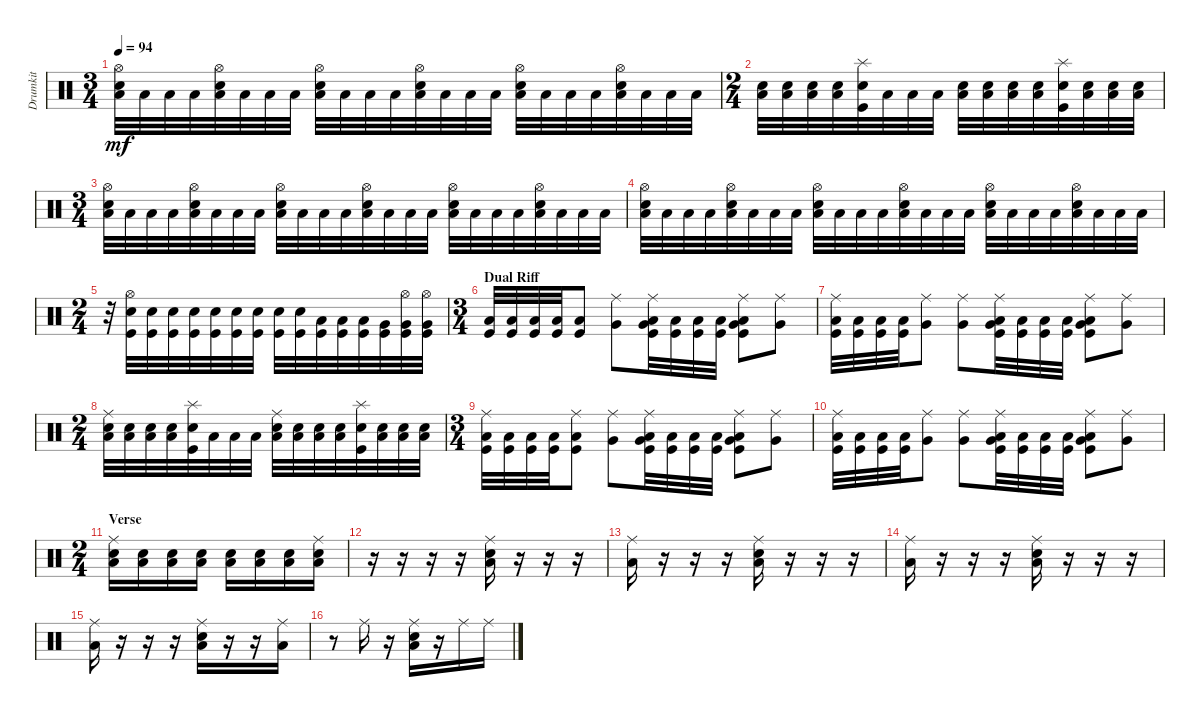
\track ("Drumkit" "Drumkit") {instrument percussion}
\staff {score}
\articulation defaults
\ts (3 4)
\tempo 94
\clef neutral
\ks c
("Low Tom (hit)" "Hi-Hat (open)" "Snare (hit) 2").32{dy mf} "Low Tom (hit)".32 "Low Tom (hit)".32 "Low Tom (hit)".32 ("Low Tom (hit)" "Hi-Hat (open)" "Snare (hit) 2").32 "Low Tom (hit)".32 "Low Tom (hit)".32 "Low Tom (hit)".32 ("Low Tom (hit)" "Hi-Hat (open)" "Snare (hit) 2").32 "Low Tom (hit)".32 "Low Tom (hit)".32 "Low Tom (hit)".32 ("Low Tom (hit)" "Hi-Hat (open)" "Snare (hit) 2").32 "Low Tom (hit)".32 "Low Tom (hit)".32 "Low Tom (hit)".32 ("Low Tom (hit)" "Hi-Hat (open)" "Snare (hit) 2").32 "Low Tom (hit)".32 "Low Tom (hit)".32 "Low Tom (hit)".32 ("Low Tom (hit)" "Hi-Hat (open)" "Snare (hit) 2").32 "Low Tom (hit)".32 "Low Tom (hit)".32 "Low Tom (hit)".32 |
\ts (2 4)
("Snare (hit) 2" "Low Tom (hit)").32 ("Snare (hit) 2" "Low Tom (hit)").32 ("Snare (hit) 2" "Low Tom (hit)").32 ("Snare (hit) 2" "Low Tom (hit)").32 ("Snare (hit) 2" "Kick (hit)" "Splash (hit)").32 "Low Tom (hit)".32 "Low Tom (hit)".32 "Low Tom (hit)".32 ("Snare (hit) 2" "Low Tom (hit)").32 ("Snare (hit) 2" "Low Tom (hit)").32 ("Snare (hit) 2" "Low Tom (hit)").32 ("Snare (hit) 2" "Low Tom (hit)").32 ("Snare (hit) 2" "Kick (hit)" "Splash (hit)").32 ("Snare (hit) 2" "Low Tom (hit)").32 ("Snare (hit) 2" "Low Tom (hit)").32 ("Snare (hit) 2" "Low Tom (hit)").32 |
\ts (3 4)
("Low Tom (hit)" "Hi-Hat (open)" "Snare (hit) 2").32 "Low Tom (hit)".32 "Low Tom (hit)".32 "Low Tom (hit)".32 ("Low Tom (hit)" "Hi-Hat (open)" "Snare (hit) 2").32 "Low Tom (hit)".32 "Low Tom (hit)".32 "Low Tom (hit)".32 ("Low Tom (hit)" "Hi-Hat (open)" "Snare (hit) 2").32 "Low Tom (hit)".32 "Low Tom (hit)".32 "Low Tom (hit)".32 ("Low Tom (hit)" "Hi-Hat (open)" "Snare (hit) 2").32 "Low Tom (hit)".32 "Low Tom (hit)".32 "Low Tom (hit)".32 ("Low Tom (hit)" "Hi-Hat (open)" "Snare (hit) 2").32 "Low Tom (hit)".32 "Low Tom (hit)".32 "Low Tom (hit)".32 ("Low Tom (hit)" "Hi-Hat (open)" "Snare (hit) 2").32 "Low Tom (hit)".32 "Low Tom (hit)".32 "Low Tom (hit)".32 |
("Low Tom (hit)" "Hi-Hat (open)" "Snare (hit) 2").32 "Low Tom (hit)".32 "Low Tom (hit)".32 "Low Tom (hit)".32 ("Low Tom (hit)" "Hi-Hat (open)" "Snare (hit) 2").32 "Low Tom (hit)".32 "Low Tom (hit)".32 "Low Tom (hit)".32 ("Low Tom (hit)" "Hi-Hat (open)" "Snare (hit) 2").32 "Low Tom (hit)".32 "Low Tom (hit)".32 "Low Tom (hit)".32 ("Low Tom (hit)" "Hi-Hat (open)" "Snare (hit) 2").32 "Low Tom (hit)".32 "Low Tom (hit)".32 "Low Tom (hit)".32 ("Low Tom (hit)" "Hi-Hat (open)" "Snare (hit) 2").32 "Low Tom (hit)".32 "Low Tom (hit)".32 "Low Tom (hit)".32 ("Low Tom (hit)" "Hi-Hat (open)" "Snare (hit) 2").32 "Low Tom (hit)".32 "Low Tom (hit)".32 "Low Tom (hit)".32 |
\ts (2 4)
r.32 ("Snare (hit) 2" "Kick (hit)" "Hi-Hat (open)").32 ("Snare (hit) 2" "Kick (hit)").32 ("Snare (hit) 2" "Kick (hit)").32 ("Snare (hit) 2" "Kick (hit)").32 ("Snare (hit) 2" "Kick (hit)").32 ("Snare (hit) 2" "Kick (hit)").32 ("Snare (hit) 2" "Kick (hit)").32 ("Snare (hit) 2" "Kick (hit)").32 ("Snare (hit) 2" "Kick (hit)").32 ("Kick (hit)" "Low Tom (hit)").32 ("Kick (hit)" "Low Tom (hit)").32 ("Kick (hit)" "Low Tom (hit)").32 ("Kick (hit)" "Very Low Tom (hit)").32 ("Kick (hit)" "Very Low Tom (hit)" "Hi-Hat (open)").32 ("Kick (hit)" "Very Low Tom (hit)" "Hi-Hat (open)").32 |
\ts (3 4)
\section ("" "Dual Riff")
("Kick (hit)" "Low Floor Tom (hit)").32 ("Low Floor Tom (hit)" "Kick (hit)").32 ("Low Floor Tom (hit)" "Kick (hit)").32 ("Kick (hit)" "Low Floor Tom (hit)").32 ("Low Floor Tom (hit)" "Kick (hit)").8 ("Ride (middle)" "Very Low Tom (hit)").8 ("Ride (middle)" "Very Low Tom (hit)" "Low Floor Tom (hit)" "Kick (hit)").32 ("Kick (hit)" "Low Floor Tom (hit)").32 ("Kick (hit)" "Low Floor Tom (hit)").32 ("Kick (hit)" "Low Floor Tom (hit)").32 ("Ride (middle)" "Very Low Tom (hit)" "Low Floor Tom (hit)" "Kick (hit)").8 ("Ride (middle)" "Very Low Tom (hit)").8 |
("Kick (hit)" "Ride (middle)" "Low Floor Tom (hit)").32 ("Low Floor Tom (hit)" "Kick (hit)").32 ("Low Floor Tom (hit)" "Kick (hit)").32 ("Kick (hit)" "Low Floor Tom (hit)").32 ("Ride (middle)" "Very Low Tom (hit)").8 ("Ride (middle)" "Very Low Tom (hit)").8 ("Ride (middle)" "Very Low Tom (hit)" "Low Floor Tom (hit)" "Kick (hit)").32 ("Kick (hit)" "Low Floor Tom (hit)").32 ("Kick (hit)" "Low Floor Tom (hit)").32 ("Kick (hit)" "Low Floor Tom (hit)").32 ("Ride (middle)" "Very Low Tom (hit)" "Low Floor Tom (hit)" "Kick (hit)").8 ("Ride (middle)" "Very Low Tom (hit)").8 |
\ts (2 4)
("Snare (hit) 2" "Low Tom (hit)" "Ride (middle)").32 ("Snare (hit) 2" "Low Tom (hit)").32 ("Snare (hit) 2" "Low Tom (hit)").32 ("Snare (hit) 2" "Low Tom (hit)").32 ("Snare (hit) 2" "Kick (hit)" "Splash (hit)").32 "Low Tom (hit)".32 "Low Tom (hit)".32 "Low Tom (hit)".32 ("Snare (hit) 2" "Low Tom (hit)" "Ride (middle)").32 ("Snare (hit) 2" "Low Tom (hit)").32 ("Snare (hit) 2" "Low Tom (hit)").32 ("Snare (hit) 2" "Low Tom (hit)").32 ("Snare (hit) 2" "Kick (hit)" "Splash (hit)").32 ("Snare (hit) 2" "Low Tom (hit)").32 ("Snare (hit) 2" "Low Tom (hit)").32 ("Snare (hit) 2" "Low Tom (hit)").32 |
\ts (3 4)
("Kick (hit)" "Low Floor Tom (hit)" "Ride (middle)").32 ("Low Floor Tom (hit)" "Kick (hit)").32 ("Low Floor Tom (hit)" "Kick (hit)").32 ("Kick (hit)" "Low Floor Tom (hit)").32 ("Low Floor Tom (hit)" "Kick (hit)" "Ride (middle)").8 ("Ride (middle)" "Very Low Tom (hit)").8 ("Ride (middle)" "Very Low Tom (hit)" "Low Floor Tom (hit)" "Kick (hit)").32 ("Kick (hit)" "Low Floor Tom (hit)").32 ("Kick (hit)" "Low Floor Tom (hit)").32 ("Kick (hit)" "Low Floor Tom (hit)").32 ("Ride (middle)" "Very Low Tom (hit)" "Low Floor Tom (hit)" "Kick (hit)").8 ("Ride (middle)" "Very Low Tom (hit)").8 |
("Kick (hit)" "Ride (middle)" "Low Floor Tom (hit)").32 ("Low Floor Tom (hit)" "Kick (hit)").32 ("Low Floor Tom (hit)" "Kick (hit)").32 ("Kick (hit)" "Low Floor Tom (hit)").32 ("Ride (middle)" "Very Low Tom (hit)").8 ("Ride (middle)" "Very Low Tom (hit)").8 ("Ride (middle)" "Very Low Tom (hit)" "Low Floor Tom (hit)" "Kick (hit)").32 ("Kick (hit)" "Low Floor Tom (hit)").32 ("Kick (hit)" "Low Floor Tom (hit)").32 ("Kick (hit)" "Low Floor Tom (hit)").32 ("Ride (middle)" "Very Low Tom (hit)" "Low Floor Tom (hit)" "Kick (hit)").8 ("Ride (middle)" "Very Low Tom (hit)").8 |
\ts (2 4)
\section ("" "Verse")
("Low Tom (hit)" "Snare (hit) 2" "Ride (middle)").16 ("Snare (hit) 2" "Low Tom (hit)").16 ("Snare (hit) 2" "Low Tom (hit)").16 ("Snare (hit) 2" "Low Tom (hit)").16 ("Snare (hit) 2" "Low Tom (hit)").16 ("Snare (hit) 2" "Low Tom (hit)").16 ("Snare (hit) 2" "Low Tom (hit)").16 ("Snare (hit) 2" "Low Tom (hit)" "Ride (middle)").16 |
r.16 r.16 r.16 r.16 ("Ride (middle)" "Snare (hit) 2" "Low Tom (hit)").16 r.16 r.16 r.16 |
("Ride (middle)" "Low Floor Tom (hit)").16 r.16 r.16 r.16 ("Ride (middle)" "Snare (hit) 2" "Low Tom (hit)").16 r.16 r.16 r.16 |
("Ride (middle)" "Low Floor Tom (hit)").16 r.16 r.16 r.16 ("Ride (middle)" "Snare (hit) 2" "Low Tom (hit)").16 r.16 r.16 r.16 |
("Ride (middle)" "Low Floor Tom (hit)").16 r.16 r.16 r.16 ("Ride (middle)" "Snare (hit) 2" "Low Tom (hit)").16 r.16 r.16 ("Ride (middle)" "Low Floor Tom (hit)").16 |
r.8 "Ride (middle)".16 r.16 ("Ride (middle)" "Snare (hit) 2" "Low Tom (hit)").16 r.16 "Ride (middle)".16 "Ride (middle)".16
